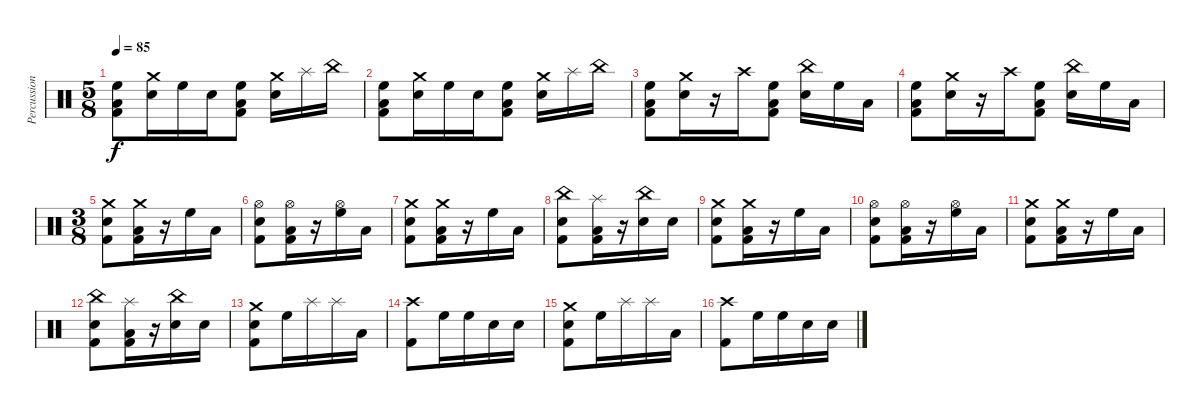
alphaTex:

\track ("Percussion" "Percussion") {instrument percussion}
\staff {score}
\articulation defaults
\ts (5 8)
\tempo 85
\clef neutral
\ks c
("Low Tom (hit)" "High Floor Tom (hit)" "Kick (hit) 2").8{dy f} ("Crash medium (hit)" "Electric Snare (hit)").16 "High Floor Tom (hit)".16 "Electric Snare (hit)".16 ("Low Tom (hit)" "High Floor Tom (hit)" "Kick (hit) 2").8 ("Crash medium (hit)" "Electric Snare (hit)").16 "Splash (hit)".16 "China (hit)".16 |
("Low Tom (hit)" "High Floor Tom (hit)" "Kick (hit) 2").8 ("Crash medium (hit)" "Electric Snare (hit)").16 "High Floor Tom (hit)".16 "Electric Snare (hit)".16 ("Low Tom (hit)" "High Floor Tom (hit)" "Kick (hit) 2").8 ("Crash medium (hit)" "Electric Snare (hit)").16 "Splash (hit)".16 "China (hit)".16 |
("Low Tom (hit)" "High Floor Tom (hit)" "Kick (hit) 2").8 ("Crash medium (hit)" "Electric Snare (hit)").16 r.16 "Crash high (hit)".16 ("Low Tom (hit)" "High Floor Tom (hit)" "Kick (hit) 2").8 ("China (hit)" "Electric Snare (hit)").16 "High Floor Tom (hit)".16 "Low Tom (hit)".16 |
("Low Tom (hit)" "High Floor Tom (hit)" "Kick (hit) 2").8 ("Crash medium (hit)" "Electric Snare (hit)").16 r.16 "Crash high (hit)".16 ("Low Tom (hit)" "High Floor Tom (hit)" "Kick (hit) 2").8 ("China (hit)" "Electric Snare (hit)").16 "High Floor Tom (hit)".16 "Low Tom (hit)".16 |
\ts (3 8)
("Crash medium (hit)" "Electric Snare (hit)" "Kick (hit) 2").8 ("Crash medium (hit)" "Low Tom (hit)" "Kick (hit) 2").16 r.16 "High Floor Tom (hit)".16 "Low Tom (hit)".16 |
("Hi-Hat (open)" "Electric Snare (hit)" "Kick (hit) 2").8 ("Hi-Hat (open)" "Low Tom (hit)" "Kick (hit) 2").16 r.16 ("Hi-Hat (open)" "High Floor Tom (hit)").16 "Low Tom (hit)".16 |
("Crash medium (hit)" "Electric Snare (hit)" "Kick (hit) 2").8 ("Crash medium (hit)" "Low Tom (hit)" "Kick (hit) 2").16 r.16 "High Floor Tom (hit)".16 "Low Tom (hit)".16 |
("China (hit)" "Electric Snare (hit)" "Kick (hit) 2").8 ("Splash (hit)" "Low Tom (hit)" "Kick (hit) 2").16 r.16 ("China (hit)" "Electric Snare (hit)").16 "Electric Snare (hit)".16 |
("Crash medium (hit)" "Electric Snare (hit)" "Kick (hit) 2").8 ("Crash medium (hit)" "Low Tom (hit)" "Kick (hit) 2").16 r.16 "High Floor Tom (hit)".16 "Low Tom (hit)".16 |
("Hi-Hat (open)" "Electric Snare (hit)" "Kick (hit) 2").8 ("Hi-Hat (open)" "Low Tom (hit)" "Kick (hit) 2").16 r.16 ("Hi-Hat (open)" "High Floor Tom (hit)").16 "Low Tom (hit)".16 |
("Crash medium (hit)" "Electric Snare (hit)" "Kick (hit) 2").8 ("Crash medium (hit)" "Low Tom (hit)" "Kick (hit) 2").16 r.16 "High Floor Tom (hit)".16 "Low Tom (hit)".16 |
("China (hit)" "Electric Snare (hit)" "Kick (hit) 2").8 ("Splash (hit)" "Low Tom (hit)" "Kick (hit) 2").16 r.16 ("China (hit)" "Electric Snare (hit)").16 "Electric Snare (hit)".16 |
("Crash medium (hit)" "Electric Snare (hit)" "Kick (hit) 2").8 "High Floor Tom (hit)".16 "Splash (hit)".16 "Splash (hit)".16 "Low Tom (hit)".16 |
("Crash high (hit)" "Kick (hit) 2").8 "High Floor Tom (hit)".16 "High Floor Tom (hit)".16 "Electric Snare (hit)".16 "Electric Snare (hit)".16 |
("Crash medium (hit)" "Electric Snare (hit)" "Kick (hit) 2").8 "High Floor Tom (hit)".16 "Splash (hit)".16 "Splash (hit)".16 "Low Tom (hit)".16 |
("Crash high (hit)" "Kick (hit) 2").8 "High Floor Tom (hit)".16 "High Floor Tom (hit)".16 "Electric Snare (hit)".16 "Electric Snare (hit)".16
